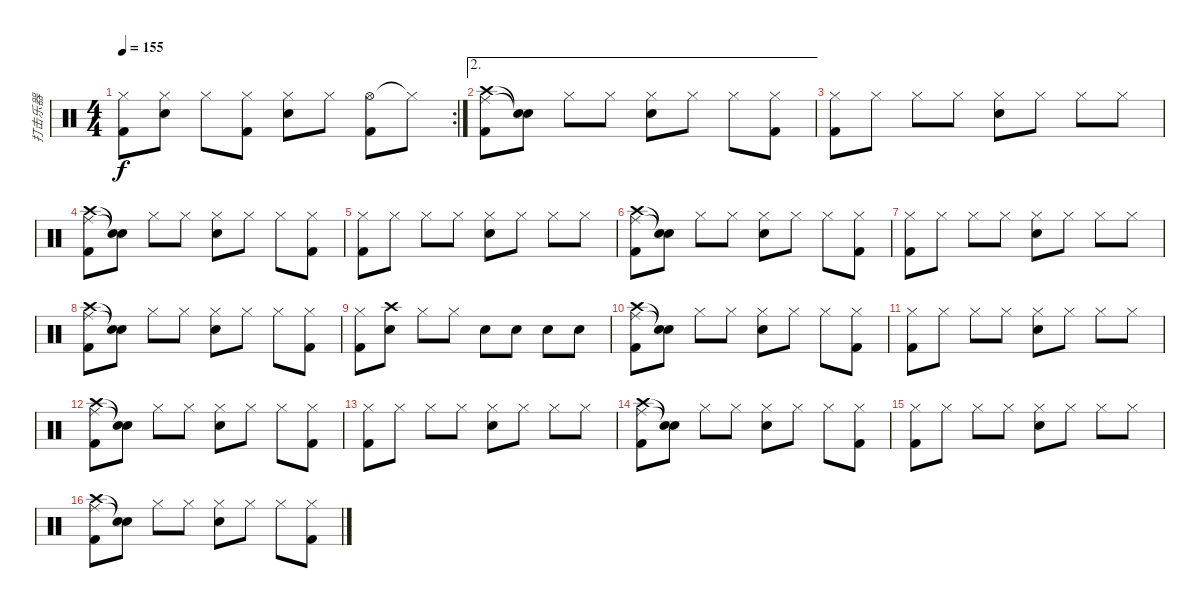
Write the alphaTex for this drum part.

\track ("打击乐器" "打击乐器") {instrument percussion}
\staff {score}
\articulation defaults
\rc 2
\ts (4 4)
\tempo 155
\clef neutral
\ks c
("Hi-Hat (closed)" "Kick (hit) 2").8{dy f} ("Hi-Hat (closed)" "Snare (hit) 2").8 "Hi-Hat (closed)".8 ("Hi-Hat (closed)" "Kick (hit) 2").8 ("Hi-Hat (closed)" "Snare (hit) 2").8 "Hi-Hat (closed)".8 ("Hi-Hat (open)" "Kick (hit) 2").8 "Hi-Hat (closed)"{t}.8 |
\ae 2
("Crash high (hit)" "Ride (middle)" "Kick (hit) 2").8 ("Snare (hit)"{t} "Snare (hit)"{t}).8 "Hi-Hat (closed)".8 "Hi-Hat (closed)".8 ("Hi-Hat (closed)" "Snare (hit) 2").8 "Hi-Hat (closed)".8 "Hi-Hat (closed)".8 ("Hi-Hat (closed)" "Kick (hit) 2").8 |
("Hi-Hat (closed)" "Kick (hit) 2").8 "Hi-Hat (closed)".8 "Hi-Hat (closed)".8 "Hi-Hat (closed)".8 ("Hi-Hat (closed)" "Snare (hit) 2").8 "Hi-Hat (closed)".8 "Hi-Hat (closed)".8 "Hi-Hat (closed)".8 |
("Crash high (hit)" "Ride (middle)" "Kick (hit) 2").8 ("Snare (hit)"{t} "Snare (hit)"{t}).8 "Hi-Hat (closed)".8 "Hi-Hat (closed)".8 ("Hi-Hat (closed)" "Snare (hit) 2").8 "Hi-Hat (closed)".8 "Hi-Hat (closed)".8 ("Hi-Hat (closed)" "Kick (hit) 2").8 |
("Hi-Hat (closed)" "Kick (hit) 2").8 "Hi-Hat (closed)".8 "Hi-Hat (closed)".8 "Hi-Hat (closed)".8 ("Hi-Hat (closed)" "Snare (hit) 2").8 "Hi-Hat (closed)".8 "Hi-Hat (closed)".8 "Hi-Hat (closed)".8 |
("Crash high (hit)" "Ride (middle)" "Kick (hit) 2").8 ("Snare (hit)"{t} "Snare (hit)"{t}).8 "Hi-Hat (closed)".8 "Hi-Hat (closed)".8 ("Hi-Hat (closed)" "Snare (hit) 2").8 "Hi-Hat (closed)".8 "Hi-Hat (closed)".8 ("Hi-Hat (closed)" "Kick (hit) 2").8 |
("Hi-Hat (closed)" "Kick (hit) 2").8 "Hi-Hat (closed)".8 "Hi-Hat (closed)".8 "Hi-Hat (closed)".8 ("Hi-Hat (closed)" "Snare (hit) 2").8 "Hi-Hat (closed)".8 "Hi-Hat (closed)".8 "Hi-Hat (closed)".8 |
("Crash high (hit)" "Ride (middle)" "Kick (hit) 2").8 ("Snare (hit)"{t} "Snare (hit)"{t}).8 "Hi-Hat (closed)".8 "Hi-Hat (closed)".8 ("Hi-Hat (closed)" "Snare (hit) 2").8 "Hi-Hat (closed)".8 "Hi-Hat (closed)".8 ("Hi-Hat (closed)" "Kick (hit) 2").8 |
("Hi-Hat (closed)" "Kick (hit) 2").8 ("Crash high (hit)" "Snare (hit) 2").8 "Hi-Hat (closed)".8 "Hi-Hat (closed)".8 "Snare (hit) 2".8 "Snare (hit) 2".8 "Snare (hit) 2".8 "Snare (hit) 2".8 |
("Crash high (hit)" "Ride (middle)" "Kick (hit) 2").8 ("Snare (hit)"{t} "Snare (hit)"{t}).8 "Hi-Hat (closed)".8 "Hi-Hat (closed)".8 ("Hi-Hat (closed)" "Snare (hit) 2").8 "Hi-Hat (closed)".8 "Hi-Hat (closed)".8 ("Hi-Hat (closed)" "Kick (hit) 2").8 |
("Hi-Hat (closed)" "Kick (hit) 2").8 "Hi-Hat (closed)".8 "Hi-Hat (closed)".8 "Hi-Hat (closed)".8 ("Hi-Hat (closed)" "Snare (hit) 2").8 "Hi-Hat (closed)".8 "Hi-Hat (closed)".8 "Hi-Hat (closed)".8 |
("Crash high (hit)" "Ride (middle)" "Kick (hit) 2").8 ("Snare (hit)"{t} "Snare (hit)"{t}).8 "Hi-Hat (closed)".8 "Hi-Hat (closed)".8 ("Hi-Hat (closed)" "Snare (hit) 2").8 "Hi-Hat (closed)".8 "Hi-Hat (closed)".8 ("Hi-Hat (closed)" "Kick (hit) 2").8 |
("Hi-Hat (closed)" "Kick (hit) 2").8 "Hi-Hat (closed)".8 "Hi-Hat (closed)".8 "Hi-Hat (closed)".8 ("Hi-Hat (closed)" "Snare (hit) 2").8 "Hi-Hat (closed)".8 "Hi-Hat (closed)".8 "Hi-Hat (closed)".8 |
("Crash high (hit)" "Ride (middle)" "Kick (hit) 2").8 ("Snare (hit)"{t} "Snare (hit)"{t}).8 "Hi-Hat (closed)".8 "Hi-Hat (closed)".8 ("Hi-Hat (closed)" "Snare (hit) 2").8 "Hi-Hat (closed)".8 "Hi-Hat (closed)".8 ("Hi-Hat (closed)" "Kick (hit) 2").8 |
("Hi-Hat (closed)" "Kick (hit) 2").8 "Hi-Hat (closed)".8 "Hi-Hat (closed)".8 "Hi-Hat (closed)".8 ("Hi-Hat (closed)" "Snare (hit) 2").8 "Hi-Hat (closed)".8 "Hi-Hat (closed)".8 "Hi-Hat (closed)".8 |
("Crash high (hit)" "Ride (middle)" "Kick (hit) 2").8 ("Snare (hit)"{t} "Snare (hit)"{t}).8 "Hi-Hat (closed)".8 "Hi-Hat (closed)".8 ("Hi-Hat (closed)" "Snare (hit) 2").8 "Hi-Hat (closed)".8 "Hi-Hat (closed)".8 ("Hi-Hat (closed)" "Kick (hit) 2").8
